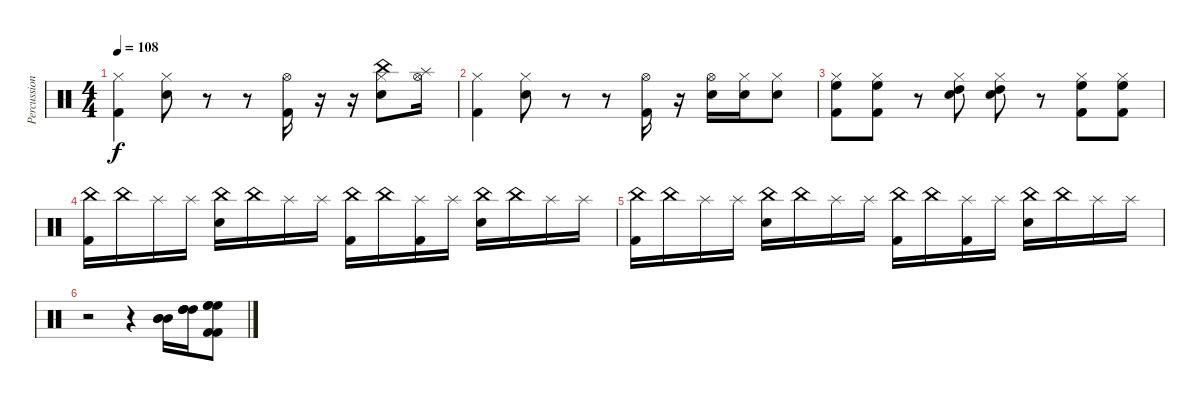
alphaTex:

\track ("Percussions" "Percussion") {instrument percussion}
\staff {score}
\articulation defaults
\ts (4 4)
\tempo 108
\clef neutral
\ks c
("Hi-Hat (closed)" "Kick (hit) 2").4{dy f} ("Hi-Hat (closed)" "Snare (hit) 2").8 r.8 r.8 ("Hi-Hat (open)" "Kick (hit) 2").16 r.16 r.16 ("Hi-Hat (closed)" "China (hit)" "Snare (hit) 2").8 ("Hi-Hat (open)" "Splash (hit)").16 |
("Hi-Hat (closed)" "Kick (hit) 2").4 ("Hi-Hat (closed)" "Snare (hit) 2").8 r.8 r.8 ("Hi-Hat (open)" "Kick (hit) 2").16 r.16 ("Hi-Hat (open)" "Snare (hit) 2").16 ("Hi-Hat (closed)" "Snare (hit) 2").16 ("Hi-Hat (closed)" "Snare (hit) 2").8 |
("Hi-Hat (closed)" "High Floor Tom (hit)" "Kick (hit) 2").8 ("Hi-Hat (closed)" "High Floor Tom (hit)" "Kick (hit) 2").8 r.8 ("Hi-Hat (closed)" "High Tom (hit)" "Snare (hit) 2").8 ("Hi-Hat (closed)" "High Tom (hit)" "Snare (hit) 2").8 r.8 ("Hi-Hat (closed)" "High Floor Tom (hit)" "Kick (hit) 2").8 ("Hi-Hat (closed)" "High Floor Tom (hit)" "Kick (hit) 2").8 |
("China (hit)" "Kick (hit) 2").16 "China (hit)".16 "Splash (hit)".16 "Splash (hit)".16 ("China (hit)" "Snare (hit) 2").16 "China (hit)".16 "Splash (hit)".16 "Splash (hit)".16 ("China (hit)" "Kick (hit) 2").16 "China (hit)".16 ("Splash (hit)" "Kick (hit) 2").16 "Splash (hit)".16 ("China (hit)" "Snare (hit) 2").16 "China (hit)".16 "Splash (hit)".16 "Splash (hit)".16 |
("China (hit)" "Kick (hit) 2").16 "China (hit)".16 "Splash (hit)".16 "Splash (hit)".16 ("China (hit)" "Snare (hit) 2").16 "China (hit)".16 "Splash (hit)".16 "Splash (hit)".16 ("China (hit)" "Kick (hit) 2").16 "China (hit)".16 ("Splash (hit)" "Kick (hit) 2").16 "Splash (hit)".16 ("China (hit)" "Snare (hit) 2").16 "China (hit)".16 "Splash (hit)".16 "Splash (hit)".16 |
r.2 r.4 ("Mid Tom (hit)" "Mid Tom (hit)" "Mid Tom (hit)").16 ("High Tom (hit)" "High Tom (hit)" "High Tom (hit)").16 ("High Floor Tom (hit)" "High Floor Tom (hit)" "High Floor Tom (hit)" "Kick (hit) 2" "Kick (hit) 2").8
